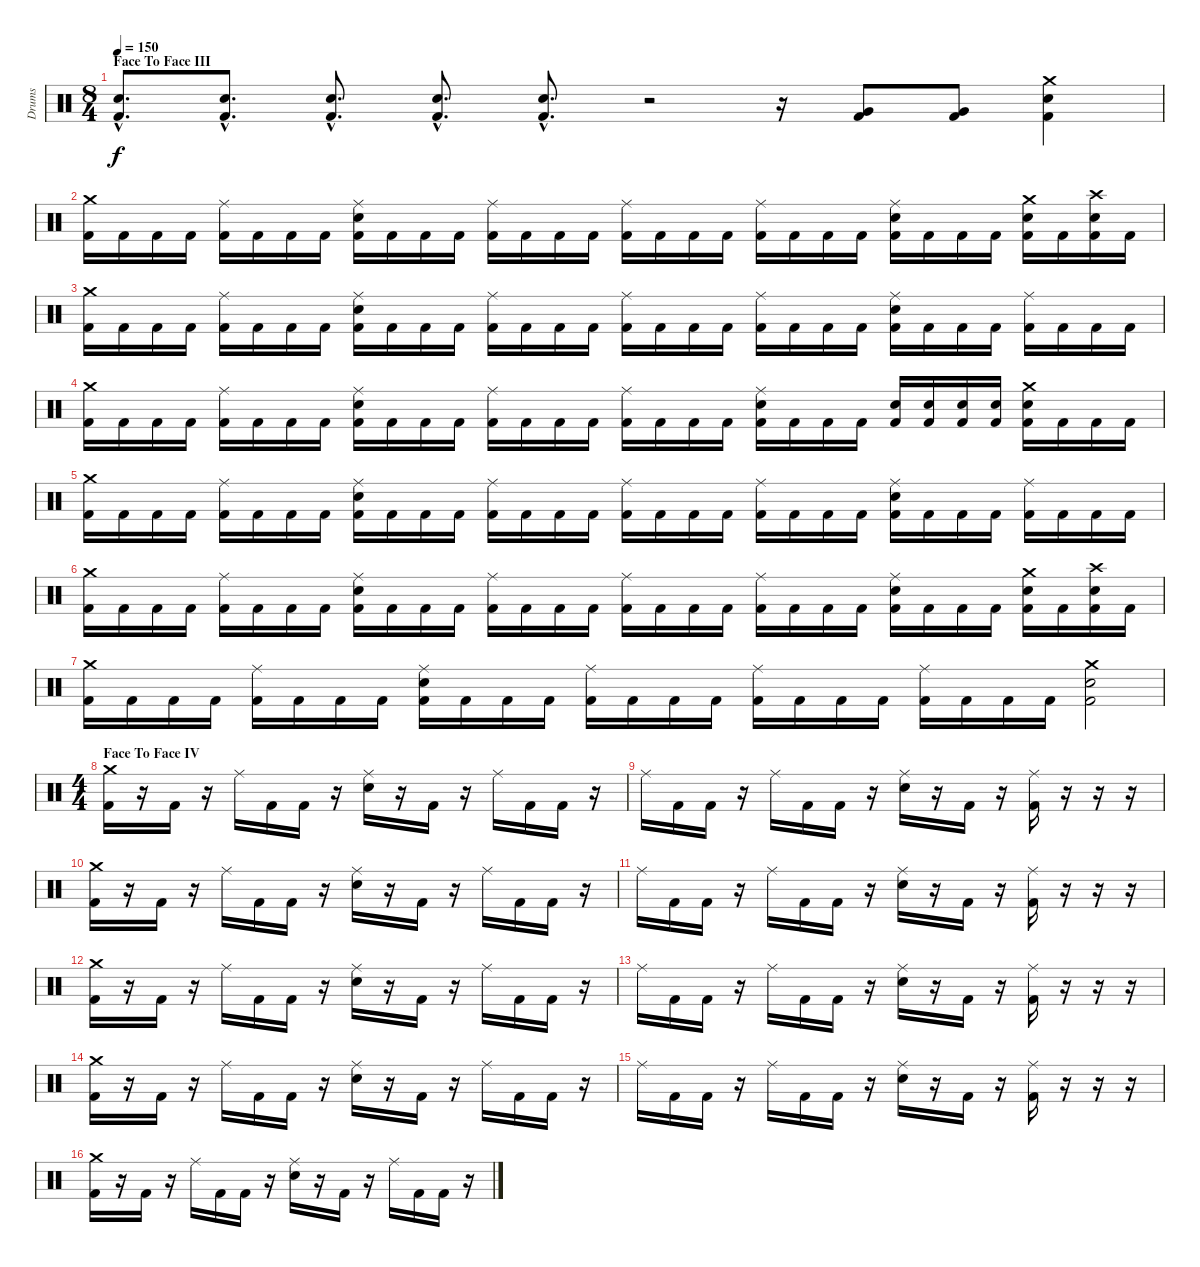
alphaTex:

\track ("Drums" "Drums") {instrument percussion}
\staff {score}
\articulation defaults
\ts (8 4)
\section ("" "Face To Face III")
\tempo 150
\clef neutral
\ks c
("Electric Snare (hit)"{hac} "Kick (hit) 2"{hac}).8{d dy f} ("Electric Snare (hit)"{hac} "Kick (hit) 2"{hac}).8{d} ("Electric Snare (hit)"{hac} "Kick (hit) 2"{hac}).8{d} ("Electric Snare (hit)"{hac} "Kick (hit) 2"{hac}).8{d} ("Electric Snare (hit)"{hac} "Kick (hit) 2"{hac}).8{d} r.2 r.16 ("Very Low Tom (hit)" "Kick (hit) 2").8 ("Very Low Tom (hit)" "Kick (hit) 2").8 ("Crash medium (hit)" "Electric Snare (hit)" "Kick (hit) 2").4 |
("Crash medium (hit)" "Kick (hit) 2").16 "Kick (hit) 2".16 "Kick (hit) 2".16 "Kick (hit) 2".16 ("Ride (middle)" "Kick (hit) 2").16 "Kick (hit) 2".16 "Kick (hit) 2".16 "Kick (hit) 2".16 ("Ride (middle)" "Electric Snare (hit)" "Kick (hit) 2").16 "Kick (hit) 2".16 "Kick (hit) 2".16 "Kick (hit) 2".16 ("Ride (middle)" "Kick (hit) 2").16 "Kick (hit) 2".16 "Kick (hit) 2".16 "Kick (hit) 2".16 ("Ride (middle)" "Kick (hit) 2").16 "Kick (hit) 2".16 "Kick (hit) 2".16 "Kick (hit) 2".16 ("Ride (middle)" "Kick (hit) 2").16 "Kick (hit) 2".16 "Kick (hit) 2".16 "Kick (hit) 2".16 ("Ride (middle)" "Electric Snare (hit)" "Kick (hit) 2").16 "Kick (hit) 2".16 "Kick (hit) 2".16 "Kick (hit) 2".16 ("Crash medium (hit)" "Electric Snare (hit)" "Kick (hit) 2").16 "Kick (hit) 2".16 ("Crash high (hit)" "Electric Snare (hit)" "Kick (hit) 2").16 "Kick (hit) 2".16 |
("Crash medium (hit)" "Kick (hit) 2").16 "Kick (hit) 2".16 "Kick (hit) 2".16 "Kick (hit) 2".16 ("Ride (middle)" "Kick (hit) 2").16 "Kick (hit) 2".16 "Kick (hit) 2".16 "Kick (hit) 2".16 ("Ride (middle)" "Electric Snare (hit)" "Kick (hit) 2").16 "Kick (hit) 2".16 "Kick (hit) 2".16 "Kick (hit) 2".16 ("Ride (middle)" "Kick (hit) 2").16 "Kick (hit) 2".16 "Kick (hit) 2".16 "Kick (hit) 2".16 ("Ride (middle)" "Kick (hit) 2").16 "Kick (hit) 2".16 "Kick (hit) 2".16 "Kick (hit) 2".16 ("Ride (middle)" "Kick (hit) 2").16 "Kick (hit) 2".16 "Kick (hit) 2".16 "Kick (hit) 2".16 ("Ride (middle)" "Electric Snare (hit)" "Kick (hit) 2").16 "Kick (hit) 2".16 "Kick (hit) 2".16 "Kick (hit) 2".16 ("Ride (middle)" "Kick (hit) 2").16 "Kick (hit) 2".16 "Kick (hit) 2".16 "Kick (hit) 2".16 |
("Crash medium (hit)" "Kick (hit) 2").16 "Kick (hit) 2".16 "Kick (hit) 2".16 "Kick (hit) 2".16 ("Ride (middle)" "Kick (hit) 2").16 "Kick (hit) 2".16 "Kick (hit) 2".16 "Kick (hit) 2".16 ("Ride (middle)" "Electric Snare (hit)" "Kick (hit) 2").16 "Kick (hit) 2".16 "Kick (hit) 2".16 "Kick (hit) 2".16 ("Ride (middle)" "Kick (hit) 2").16 "Kick (hit) 2".16 "Kick (hit) 2".16 "Kick (hit) 2".16 ("Ride (middle)" "Kick (hit) 2").16 "Kick (hit) 2".16 "Kick (hit) 2".16 "Kick (hit) 2".16 ("Ride (middle)" "Electric Snare (hit)" "Kick (hit) 2").16 "Kick (hit) 2".16 "Kick (hit) 2".16 "Kick (hit) 2".16 ("Electric Snare (hit)" "Kick (hit) 2").16 ("Electric Snare (hit)" "Kick (hit) 2").16 ("Electric Snare (hit)" "Kick (hit) 2").16 ("Electric Snare (hit)" "Kick (hit) 2").16 ("Crash medium (hit)" "Electric Snare (hit)" "Kick (hit) 2").16 "Kick (hit) 2".16 "Kick (hit) 2".16 "Kick (hit) 2".16 |
("Crash medium (hit)" "Kick (hit) 2").16 "Kick (hit) 2".16 "Kick (hit) 2".16 "Kick (hit) 2".16 ("Ride (middle)" "Kick (hit) 2").16 "Kick (hit) 2".16 "Kick (hit) 2".16 "Kick (hit) 2".16 ("Ride (middle)" "Electric Snare (hit)" "Kick (hit) 2").16 "Kick (hit) 2".16 "Kick (hit) 2".16 "Kick (hit) 2".16 ("Ride (middle)" "Kick (hit) 2").16 "Kick (hit) 2".16 "Kick (hit) 2".16 "Kick (hit) 2".16 ("Ride (middle)" "Kick (hit) 2").16 "Kick (hit) 2".16 "Kick (hit) 2".16 "Kick (hit) 2".16 ("Ride (middle)" "Kick (hit) 2").16 "Kick (hit) 2".16 "Kick (hit) 2".16 "Kick (hit) 2".16 ("Ride (middle)" "Electric Snare (hit)" "Kick (hit) 2").16 "Kick (hit) 2".16 "Kick (hit) 2".16 "Kick (hit) 2".16 ("Ride (middle)" "Kick (hit) 2").16 "Kick (hit) 2".16 "Kick (hit) 2".16 "Kick (hit) 2".16 |
("Crash medium (hit)" "Kick (hit) 2").16 "Kick (hit) 2".16 "Kick (hit) 2".16 "Kick (hit) 2".16 ("Ride (middle)" "Kick (hit) 2").16 "Kick (hit) 2".16 "Kick (hit) 2".16 "Kick (hit) 2".16 ("Ride (middle)" "Electric Snare (hit)" "Kick (hit) 2").16 "Kick (hit) 2".16 "Kick (hit) 2".16 "Kick (hit) 2".16 ("Ride (middle)" "Kick (hit) 2").16 "Kick (hit) 2".16 "Kick (hit) 2".16 "Kick (hit) 2".16 ("Ride (middle)" "Kick (hit) 2").16 "Kick (hit) 2".16 "Kick (hit) 2".16 "Kick (hit) 2".16 ("Ride (middle)" "Kick (hit) 2").16 "Kick (hit) 2".16 "Kick (hit) 2".16 "Kick (hit) 2".16 ("Ride (middle)" "Electric Snare (hit)" "Kick (hit) 2").16 "Kick (hit) 2".16 "Kick (hit) 2".16 "Kick (hit) 2".16 ("Crash medium (hit)" "Electric Snare (hit)" "Kick (hit) 2").16 "Kick (hit) 2".16 ("Crash high (hit)" "Electric Snare (hit)" "Kick (hit) 2").16 "Kick (hit) 2".16 |
("Crash medium (hit)" "Kick (hit) 2").16 "Kick (hit) 2".16 "Kick (hit) 2".16 "Kick (hit) 2".16 ("Ride (middle)" "Kick (hit) 2").16 "Kick (hit) 2".16 "Kick (hit) 2".16 "Kick (hit) 2".16 ("Ride (middle)" "Electric Snare (hit)" "Kick (hit) 2").16 "Kick (hit) 2".16 "Kick (hit) 2".16 "Kick (hit) 2".16 ("Ride (middle)" "Kick (hit) 2").16 "Kick (hit) 2".16 "Kick (hit) 2".16 "Kick (hit) 2".16 ("Ride (middle)" "Kick (hit) 2").16 "Kick (hit) 2".16 "Kick (hit) 2".16 "Kick (hit) 2".16 ("Ride (middle)" "Kick (hit) 2").16 "Kick (hit) 2".16 "Kick (hit) 2".16 "Kick (hit) 2".16 ("Crash medium (hit)" "Electric Snare (hit)" "Kick (hit) 2").2 |
\ts (4 4)
\section ("" "Face To Face IV")
("Crash medium (hit)" "Kick (hit) 2").16 r.16 "Kick (hit) 2".16 r.16 "Ride (middle)".16 "Kick (hit) 2".16 "Kick (hit) 2".16 r.16 ("Ride (middle)" "Electric Snare (hit)").16 r.16 "Kick (hit) 2".16 r.16 "Ride (middle)".16 "Kick (hit) 2".16 "Kick (hit) 2".16 r.16 |
"Ride (middle)".16 "Kick (hit) 2".16 "Kick (hit) 2".16 r.16 "Ride (middle)".16 "Kick (hit) 2".16 "Kick (hit) 2".16 r.16 ("Ride (middle)" "Electric Snare (hit)").16 r.16 "Kick (hit) 2".16 r.16 ("Ride (middle)" "Kick (hit) 2").16 r.16 r.16 r.16 |
("Crash medium (hit)" "Kick (hit) 2").16 r.16 "Kick (hit) 2".16 r.16 "Ride (middle)".16 "Kick (hit) 2".16 "Kick (hit) 2".16 r.16 ("Ride (middle)" "Electric Snare (hit)").16 r.16 "Kick (hit) 2".16 r.16 "Ride (middle)".16 "Kick (hit) 2".16 "Kick (hit) 2".16 r.16 |
"Ride (middle)".16 "Kick (hit) 2".16 "Kick (hit) 2".16 r.16 "Ride (middle)".16 "Kick (hit) 2".16 "Kick (hit) 2".16 r.16 ("Ride (middle)" "Electric Snare (hit)").16 r.16 "Kick (hit) 2".16 r.16 ("Ride (middle)" "Kick (hit) 2").16 r.16 r.16 r.16 |
("Crash medium (hit)" "Kick (hit) 2").16 r.16 "Kick (hit) 2".16 r.16 "Ride (middle)".16 "Kick (hit) 2".16 "Kick (hit) 2".16 r.16 ("Ride (middle)" "Electric Snare (hit)").16 r.16 "Kick (hit) 2".16 r.16 "Ride (middle)".16 "Kick (hit) 2".16 "Kick (hit) 2".16 r.16 |
"Ride (middle)".16 "Kick (hit) 2".16 "Kick (hit) 2".16 r.16 "Ride (middle)".16 "Kick (hit) 2".16 "Kick (hit) 2".16 r.16 ("Ride (middle)" "Electric Snare (hit)").16 r.16 "Kick (hit) 2".16 r.16 ("Ride (middle)" "Kick (hit) 2").16 r.16 r.16 r.16 |
("Crash medium (hit)" "Kick (hit) 2").16 r.16 "Kick (hit) 2".16 r.16 "Ride (middle)".16 "Kick (hit) 2".16 "Kick (hit) 2".16 r.16 ("Ride (middle)" "Electric Snare (hit)").16 r.16 "Kick (hit) 2".16 r.16 "Ride (middle)".16 "Kick (hit) 2".16 "Kick (hit) 2".16 r.16 |
"Ride (middle)".16 "Kick (hit) 2".16 "Kick (hit) 2".16 r.16 "Ride (middle)".16 "Kick (hit) 2".16 "Kick (hit) 2".16 r.16 ("Ride (middle)" "Electric Snare (hit)").16 r.16 "Kick (hit) 2".16 r.16 ("Ride (middle)" "Kick (hit) 2").16 r.16 r.16 r.16 |
("Crash medium (hit)" "Kick (hit) 2").16 r.16 "Kick (hit) 2".16 r.16 "Ride (middle)".16 "Kick (hit) 2".16 "Kick (hit) 2".16 r.16 ("Ride (middle)" "Electric Snare (hit)").16 r.16 "Kick (hit) 2".16 r.16 "Ride (middle)".16 "Kick (hit) 2".16 "Kick (hit) 2".16 r.16
